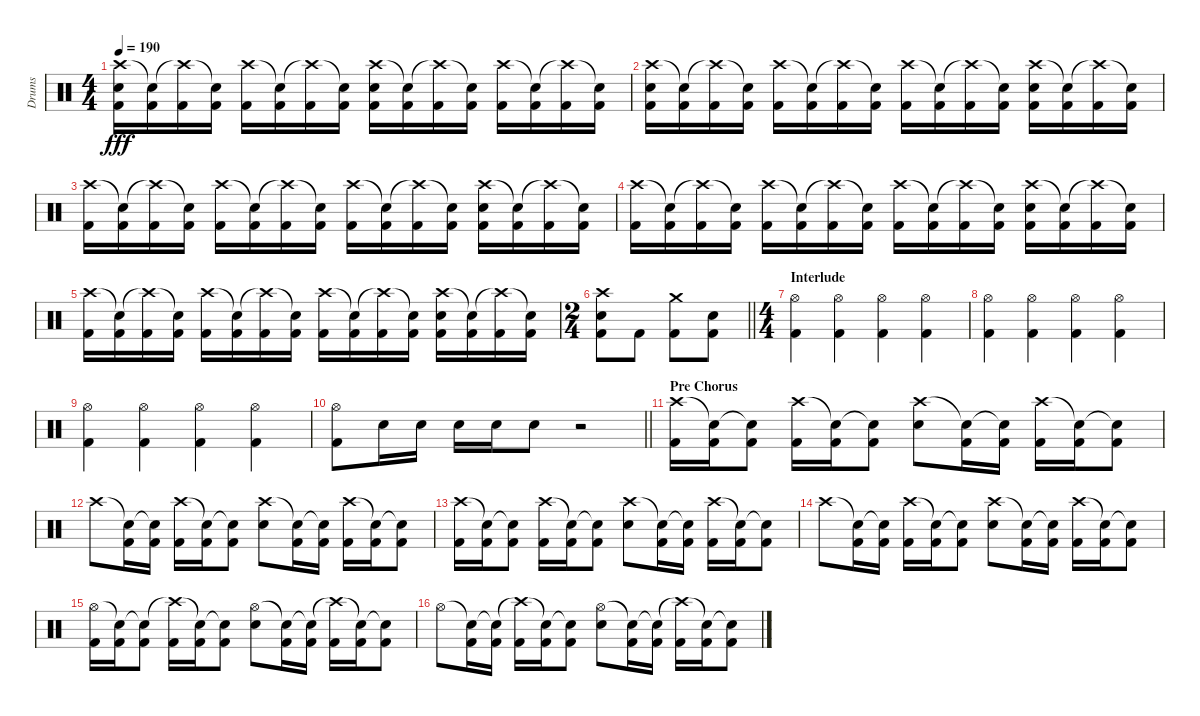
\track ("Drums" "Drums") {instrument percussion}
\staff {score}
\articulation defaults
\ts (4 4)
\tempo 190
\clef neutral
\ks c
("Crash high (hit)" "Electric Snare (hit)" "Kick (hit) 2").16{dy fff} ("Snare (hit)"{t} "Kick (hit) 2").16 ("Crash high (hit)"{t} "Kick (hit) 2").16 ("Snare (hit)"{t} "Kick (hit) 2").16 ("Crash high (hit)" "Kick (hit) 2").16 ("Snare (hit)"{t} "Kick (hit) 2").16 ("Crash high (hit)"{t} "Kick (hit) 2").16 ("Snare (hit)"{t} "Kick (hit) 2").16 ("Crash high (hit)" "Electric Snare (hit)" "Kick (hit) 2").16 ("Snare (hit)"{t} "Kick (hit) 2").16 ("Crash high (hit)"{t} "Kick (hit) 2").16 ("Snare (hit)"{t} "Kick (hit) 2").16 ("Crash high (hit)" "Kick (hit) 2").16 ("Snare (hit)"{t} "Kick (hit) 2").16 ("Crash high (hit)"{t} "Kick (hit) 2").16 ("Snare (hit)"{t} "Kick (hit) 2").16 |
("Crash high (hit)" "Electric Snare (hit)" "Kick (hit) 2").16 ("Snare (hit)"{t} "Kick (hit) 2").16 ("Crash high (hit)"{t} "Kick (hit) 2").16 ("Snare (hit)"{t} "Kick (hit) 2").16 ("Crash high (hit)" "Kick (hit) 2").16 ("Snare (hit)"{t} "Kick (hit) 2").16 ("Crash high (hit)"{t} "Kick (hit) 2").16 ("Snare (hit)"{t} "Kick (hit) 2").16 ("Crash high (hit)" "Kick (hit) 2").16 ("Snare (hit)"{t} "Kick (hit) 2").16 ("Crash high (hit)"{t} "Kick (hit) 2").16 ("Snare (hit)"{t} "Kick (hit) 2").16 ("Crash high (hit)" "Electric Snare (hit)" "Kick (hit) 2").16 ("Snare (hit)"{t} "Kick (hit) 2").16 ("Crash high (hit)"{t} "Kick (hit) 2").16 ("Snare (hit)"{t} "Kick (hit) 2").16 |
("Crash high (hit)" "Kick (hit) 2").16 ("Snare (hit)"{t} "Kick (hit) 2").16 ("Crash high (hit)"{t} "Kick (hit) 2").16 ("Snare (hit)"{t} "Kick (hit) 2").16 ("Crash high (hit)" "Kick (hit) 2").16 ("Snare (hit)"{t} "Kick (hit) 2").16 ("Crash high (hit)"{t} "Kick (hit) 2").16 ("Snare (hit)"{t} "Kick (hit) 2").16 ("Crash high (hit)" "Kick (hit) 2").16 ("Snare (hit)"{t} "Kick (hit) 2").16 ("Crash high (hit)"{t} "Kick (hit) 2").16 ("Snare (hit)"{t} "Kick (hit) 2").16 ("Crash high (hit)" "Electric Snare (hit)" "Kick (hit) 2").16 ("Snare (hit)"{t} "Kick (hit) 2").16 ("Crash high (hit)"{t} "Kick (hit) 2").16 ("Snare (hit)"{t} "Kick (hit) 2").16 |
("Crash high (hit)" "Kick (hit) 2").16 ("Snare (hit)"{t} "Kick (hit) 2").16 ("Crash high (hit)"{t} "Kick (hit) 2").16 ("Snare (hit)"{t} "Kick (hit) 2").16 ("Crash high (hit)" "Kick (hit) 2").16 ("Snare (hit)"{t} "Kick (hit) 2").16 ("Crash high (hit)"{t} "Kick (hit) 2").16 ("Snare (hit)"{t} "Kick (hit) 2").16 ("Crash high (hit)" "Kick (hit) 2").16 ("Snare (hit)"{t} "Kick (hit) 2").16 ("Crash high (hit)"{t} "Kick (hit) 2").16 ("Snare (hit)"{t} "Kick (hit) 2").16 ("Crash high (hit)" "Electric Snare (hit)" "Kick (hit) 2").16 ("Snare (hit)"{t} "Kick (hit) 2").16 ("Crash high (hit)"{t} "Kick (hit) 2").16 ("Snare (hit)"{t} "Kick (hit) 2").16 |
("Crash high (hit)" "Kick (hit) 2").16 ("Snare (hit)"{t} "Kick (hit) 2").16 ("Crash high (hit)"{t} "Kick (hit) 2").16 ("Snare (hit)"{t} "Kick (hit) 2").16 ("Crash high (hit)" "Kick (hit) 2").16 ("Snare (hit)"{t} "Kick (hit) 2").16 ("Crash high (hit)"{t} "Kick (hit) 2").16 ("Snare (hit)"{t} "Kick (hit) 2").16 ("Crash high (hit)" "Kick (hit) 2").16 ("Snare (hit)"{t} "Kick (hit) 2").16 ("Crash high (hit)"{t} "Kick (hit) 2").16 ("Snare (hit)"{t} "Kick (hit) 2").16 ("Crash high (hit)" "Electric Snare (hit)" "Kick (hit) 2").16 ("Snare (hit)"{t} "Kick (hit) 2").16 ("Crash high (hit)"{t} "Kick (hit) 2").16 ("Snare (hit)"{t} "Kick (hit) 2").16 |
\ts (2 4)
\barLineRight lightlight
("Crash high (hit)" "Electric Snare (hit)" "Kick (hit) 2").8 "Kick (hit) 2".8 ("Crash medium (hit)" "Kick (hit) 2").8 ("Electric Snare (hit)" "Kick (hit) 2").8 |
\ts (4 4)
\section ("" "Interlude")
("Hi-Hat (open)" "Kick (hit) 2").4 ("Hi-Hat (open)" "Kick (hit) 2").4 ("Hi-Hat (open)" "Kick (hit) 2").4 ("Hi-Hat (open)" "Kick (hit) 2").4 |
("Hi-Hat (open)" "Kick (hit) 2").4 ("Hi-Hat (open)" "Kick (hit) 2").4 ("Hi-Hat (open)" "Kick (hit) 2").4 ("Hi-Hat (open)" "Kick (hit) 2").4 |
("Hi-Hat (open)" "Kick (hit) 2").4 ("Hi-Hat (open)" "Kick (hit) 2").4 ("Hi-Hat (open)" "Kick (hit) 2").4 ("Hi-Hat (open)" "Kick (hit) 2").4 |
\barLineRight lightlight
("Hi-Hat (open)" "Kick (hit) 2").8 "Electric Snare (hit)".16 "Electric Snare (hit)".16 "Electric Snare (hit)".16 "Electric Snare (hit)".16 "Electric Snare (hit)".8 r.2 |
\section ("" "Pre Chorus")
("Crash high (hit)" "Kick (hit) 2").16 ("Snare (hit)"{t} "Kick (hit) 2").16 ("Snare (hit)"{t} "Kick (hit) 2").8 ("Crash high (hit)" "Kick (hit) 2").16 ("Snare (hit)"{t} "Kick (hit) 2").16 ("Snare (hit)"{t} "Kick (hit) 2").8 ("Crash high (hit)" "Electric Snare (hit)").8 ("Snare (hit)"{t} "Kick (hit) 2").16 ("Snare (hit)"{t} "Kick (hit) 2").16 ("Crash high (hit)" "Kick (hit) 2").16 ("Snare (hit)"{t} "Kick (hit) 2").16 ("Snare (hit)"{t} "Kick (hit) 2").8 |
"Crash high (hit)".8 ("Snare (hit)"{t} "Kick (hit) 2").16 ("Snare (hit)"{t} "Kick (hit) 2").16 ("Crash high (hit)" "Kick (hit) 2").16 ("Snare (hit)"{t} "Kick (hit) 2").16 ("Snare (hit)"{t} "Kick (hit) 2").8 ("Crash high (hit)" "Electric Snare (hit)").8 ("Snare (hit)"{t} "Kick (hit) 2").16 ("Snare (hit)"{t} "Kick (hit) 2").16 ("Crash high (hit)" "Kick (hit) 2").16 ("Snare (hit)"{t} "Kick (hit) 2").16 ("Snare (hit)"{t} "Kick (hit) 2").8 |
("Crash high (hit)" "Kick (hit) 2").16 ("Snare (hit)"{t} "Kick (hit) 2").16 ("Snare (hit)"{t} "Kick (hit) 2").8 ("Crash high (hit)" "Kick (hit) 2").16 ("Snare (hit)"{t} "Kick (hit) 2").16 ("Snare (hit)"{t} "Kick (hit) 2").8 ("Crash high (hit)" "Electric Snare (hit)").8 ("Snare (hit)"{t} "Kick (hit) 2").16 ("Snare (hit)"{t} "Kick (hit) 2").16 ("Crash high (hit)" "Kick (hit) 2").16 ("Snare (hit)"{t} "Kick (hit) 2").16 ("Snare (hit)"{t} "Kick (hit) 2").8 |
"Crash high (hit)".8 ("Snare (hit)"{t} "Kick (hit) 2").16 ("Snare (hit)"{t} "Kick (hit) 2").16 ("Crash high (hit)" "Kick (hit) 2").16 ("Snare (hit)"{t} "Kick (hit) 2").16 ("Snare (hit)"{t} "Kick (hit) 2").8 ("Crash high (hit)" "Electric Snare (hit)").8 ("Snare (hit)"{t} "Kick (hit) 2").16 ("Snare (hit)"{t} "Kick (hit) 2").16 ("Crash high (hit)" "Kick (hit) 2").16 ("Snare (hit)"{t} "Kick (hit) 2").16 ("Snare (hit)"{t} "Kick (hit) 2").8 |
("Hi-Hat (open)" "Kick (hit) 2").16 ("Snare (hit)"{t} "Kick (hit) 2").16 ("Snare (hit)"{t} "Kick (hit) 2").8 ("Crash high (hit)"{t} "Kick (hit) 2").16 ("Snare (hit)"{t} "Kick (hit) 2").16 ("Snare (hit)"{t} "Kick (hit) 2").8 ("Hi-Hat (open)" "Electric Snare (hit)").8 ("Snare (hit)"{t} "Kick (hit) 2").16 ("Snare (hit)"{t} "Kick (hit) 2").16 ("Crash high (hit)"{t} "Kick (hit) 2").16 ("Snare (hit)"{t} "Kick (hit) 2").16 ("Snare (hit)"{t} "Kick (hit) 2").8 |
"Hi-Hat (open)".8 ("Snare (hit)"{t} "Kick (hit) 2").16 ("Snare (hit)"{t} "Kick (hit) 2").16 ("Crash high (hit)"{t} "Kick (hit) 2").16 ("Snare (hit)"{t} "Kick (hit) 2").16 ("Snare (hit)"{t} "Kick (hit) 2").8 ("Hi-Hat (open)" "Electric Snare (hit)").8 ("Snare (hit)"{t} "Kick (hit) 2").16 ("Snare (hit)"{t} "Kick (hit) 2").16 ("Crash high (hit)"{t} "Kick (hit) 2").16 ("Snare (hit)"{t} "Kick (hit) 2").16 ("Snare (hit)"{t} "Kick (hit) 2").8
